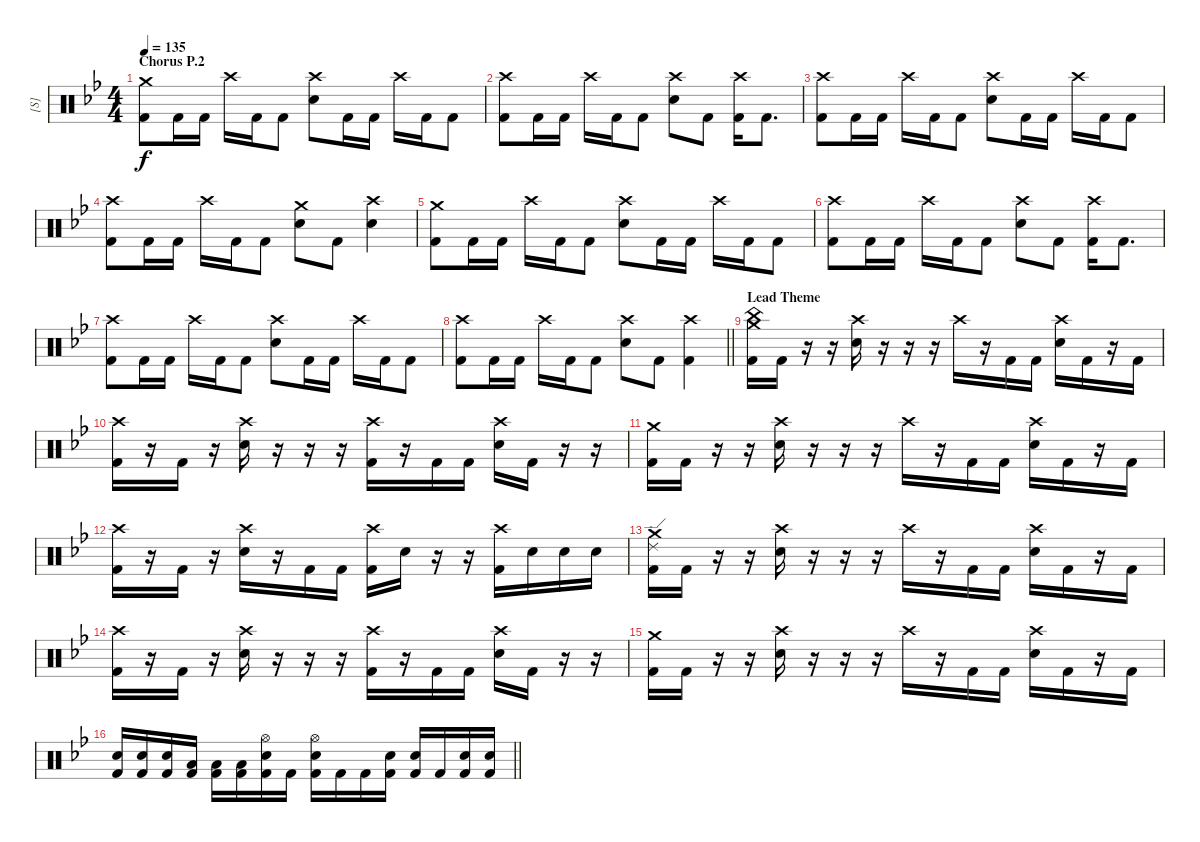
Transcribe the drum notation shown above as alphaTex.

\track ("[S]" "[S]") {instrument percussion}
\staff {score}
\articulation defaults
\ts (4 4)
\section ("" "Chorus P.2")
\tempo 135
\clef neutral
\ks gminor
("Crash medium (hit)" "Kick (hit) 2").8{dy f} "Kick (hit) 2".16 "Kick (hit) 2".16 "Crash high (hit)".16 "Kick (hit) 2".16 "Kick (hit) 2".8 ("Crash high (hit)" "Electric Snare (hit)").8 "Kick (hit) 2".16 "Kick (hit) 2".16 "Crash high (hit)".16 "Kick (hit) 2".16 "Kick (hit) 2".8 |
("Crash high (hit)" "Kick (hit) 2").8 "Kick (hit) 2".16 "Kick (hit) 2".16 "Crash high (hit)".16 "Kick (hit) 2".16 "Kick (hit) 2".8 ("Crash high (hit)" "Electric Snare (hit)").8 "Kick (hit) 2".8 ("Crash high (hit)" "Kick (hit) 2").16 "Kick (hit) 2".8{d} |
("Crash high (hit)" "Kick (hit) 2").8 "Kick (hit) 2".16 "Kick (hit) 2".16 "Crash high (hit)".16 "Kick (hit) 2".16 "Kick (hit) 2".8 ("Crash high (hit)" "Electric Snare (hit)").8 "Kick (hit) 2".16 "Kick (hit) 2".16 "Crash high (hit)".16 "Kick (hit) 2".16 "Kick (hit) 2".8 |
("Crash high (hit)" "Kick (hit) 2").8 "Kick (hit) 2".16 "Kick (hit) 2".16 "Crash high (hit)".16 "Kick (hit) 2".16 "Kick (hit) 2".8 ("Crash medium (hit)" "Electric Snare (hit)").8 "Kick (hit) 2".8 ("Crash high (hit)" "Electric Snare (hit)").4 |
("Crash medium (hit)" "Kick (hit) 2").8 "Kick (hit) 2".16 "Kick (hit) 2".16 "Crash high (hit)".16 "Kick (hit) 2".16 "Kick (hit) 2".8 ("Crash high (hit)" "Electric Snare (hit)").8 "Kick (hit) 2".16 "Kick (hit) 2".16 "Crash high (hit)".16 "Kick (hit) 2".16 "Kick (hit) 2".8 |
("Crash high (hit)" "Kick (hit) 2").8 "Kick (hit) 2".16 "Kick (hit) 2".16 "Crash high (hit)".16 "Kick (hit) 2".16 "Kick (hit) 2".8 ("Crash high (hit)" "Electric Snare (hit)").8 "Kick (hit) 2".8 ("Crash high (hit)" "Kick (hit) 2").16 "Kick (hit) 2".8{d} |
("Crash high (hit)" "Kick (hit) 2").8 "Kick (hit) 2".16 "Kick (hit) 2".16 "Crash high (hit)".16 "Kick (hit) 2".16 "Kick (hit) 2".8 ("Crash high (hit)" "Electric Snare (hit)").8 "Kick (hit) 2".16 "Kick (hit) 2".16 "Crash high (hit)".16 "Kick (hit) 2".16 "Kick (hit) 2".8 |
\barLineRight lightlight
("Crash high (hit)" "Kick (hit) 2").8 "Kick (hit) 2".16 "Kick (hit) 2".16 "Crash high (hit)".16 "Kick (hit) 2".16 "Kick (hit) 2".8 ("Crash high (hit)" "Electric Snare (hit)").8 "Kick (hit) 2".8 ("Crash high (hit)" "Kick (hit) 2").4 |
\section ("" "Lead Theme")
("Crash medium (hit)" "China (hit)" "Kick (hit) 2").16 "Kick (hit) 2".16 r.16 r.16 ("Crash high (hit)" "Electric Snare (hit)").16 r.16 r.16 r.16 "Crash high (hit)".16 r.16 "Kick (hit) 2".16 "Kick (hit) 2".16 ("Crash high (hit)" "Electric Snare (hit)").16 "Kick (hit) 2".16 r.16 "Kick (hit) 2".16 |
("Crash high (hit)" "Kick (hit) 2").16 r.16 "Kick (hit) 2".16 r.16 ("Crash high (hit)" "Electric Snare (hit)").16 r.16 r.16 r.16 ("Crash high (hit)" "Kick (hit) 2").16 r.16 "Kick (hit) 2".16 "Kick (hit) 2".16 ("Crash high (hit)" "Electric Snare (hit)").16 "Kick (hit) 2".16 r.16 r.16 |
("Crash medium (hit)" "Kick (hit) 2").16 "Kick (hit) 2".16 r.16 r.16 ("Crash high (hit)" "Electric Snare (hit)").16 r.16 r.16 r.16 "Crash high (hit)".16 r.16 "Kick (hit) 2".16 "Kick (hit) 2".16 ("Crash high (hit)" "Electric Snare (hit)").16 "Kick (hit) 2".16 r.16 "Kick (hit) 2".16 |
("Crash high (hit)" "Kick (hit) 2").16 r.16 "Kick (hit) 2".16 r.16 ("Crash high (hit)" "Electric Snare (hit)").16 r.16 "Kick (hit) 2".16 "Kick (hit) 2".16 ("Crash high (hit)" "Kick (hit) 2").16 "Electric Snare (hit)".16 r.16 r.16 ("Crash high (hit)" "Kick (hit) 2").16 "Electric Snare (hit)".16 "Electric Snare (hit)".16 "Electric Snare (hit)".16 |
("Crash medium (hit)" "Ride (edge) 2" "Kick (hit) 2").16 "Kick (hit) 2".16 r.16 r.16 ("Crash high (hit)" "Electric Snare (hit)").16 r.16 r.16 r.16 "Crash high (hit)".16 r.16 "Kick (hit) 2".16 "Kick (hit) 2".16 ("Crash high (hit)" "Electric Snare (hit)").16 "Kick (hit) 2".16 r.16 "Kick (hit) 2".16 |
("Crash high (hit)" "Kick (hit) 2").16 r.16 "Kick (hit) 2".16 r.16 ("Crash high (hit)" "Electric Snare (hit)").16 r.16 r.16 r.16 ("Crash high (hit)" "Kick (hit) 2").16 r.16 "Kick (hit) 2".16 "Kick (hit) 2".16 ("Crash high (hit)" "Electric Snare (hit)").16 "Kick (hit) 2".16 r.16 r.16 |
("Crash medium (hit)" "Kick (hit) 2").16 "Kick (hit) 2".16 r.16 r.16 ("Crash high (hit)" "Electric Snare (hit)").16 r.16 r.16 r.16 "Crash high (hit)".16 r.16 "Kick (hit) 2".16 "Kick (hit) 2".16 ("Crash high (hit)" "Electric Snare (hit)").16 "Kick (hit) 2".16 r.16 "Kick (hit) 2".16 |
\barLineRight lightlight
("Electric Snare (hit)" "Kick (hit) 2").16 ("Electric Snare (hit)" "Kick (hit) 2").16 ("Electric Snare (hit)" "Kick (hit) 2").16 ("Low Tom (hit)" "Kick (hit) 2").16 ("Low Tom (hit)" "Kick (hit) 2").16 ("Low Tom (hit)" "Kick (hit) 2").16 ("Hi-Hat (open)" "Electric Snare (hit)" "Kick (hit) 2").16 "Kick (hit) 2".16 ("Hi-Hat (open)" "Electric Snare (hit)" "Kick (hit) 2").16 "Kick (hit) 2".16 "Kick (hit) 2".16 ("Electric Snare (hit)" "Kick (hit) 2").16 ("Electric Snare (hit)" "Kick (hit) 2").16 "Kick (hit) 2".16 ("Electric Snare (hit)" "Kick (hit) 2").16 ("Electric Snare (hit)" "Kick (hit) 2").16
